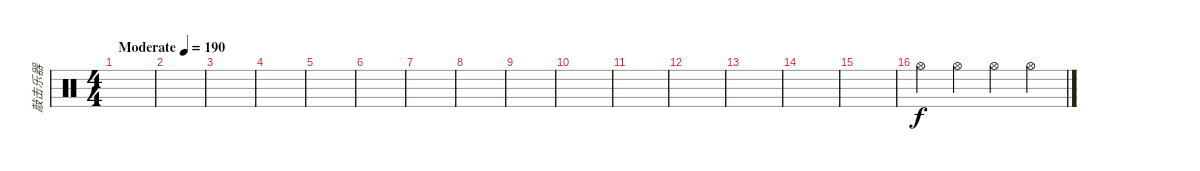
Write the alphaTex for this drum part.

\track ("敲击乐器" "敲击乐器") {instrument percussion}
\staff {score}
\articulation defaults
\ts (4 4)
\tempo (190 "Moderate")
\clef neutral
\ks c
|
|
|
|
|
|
|
|
|
|
|
|
|
|
|
"Hi-Hat (open)".4 "Hi-Hat (open)".4 "Hi-Hat (open)".4 "Hi-Hat (open)".4
